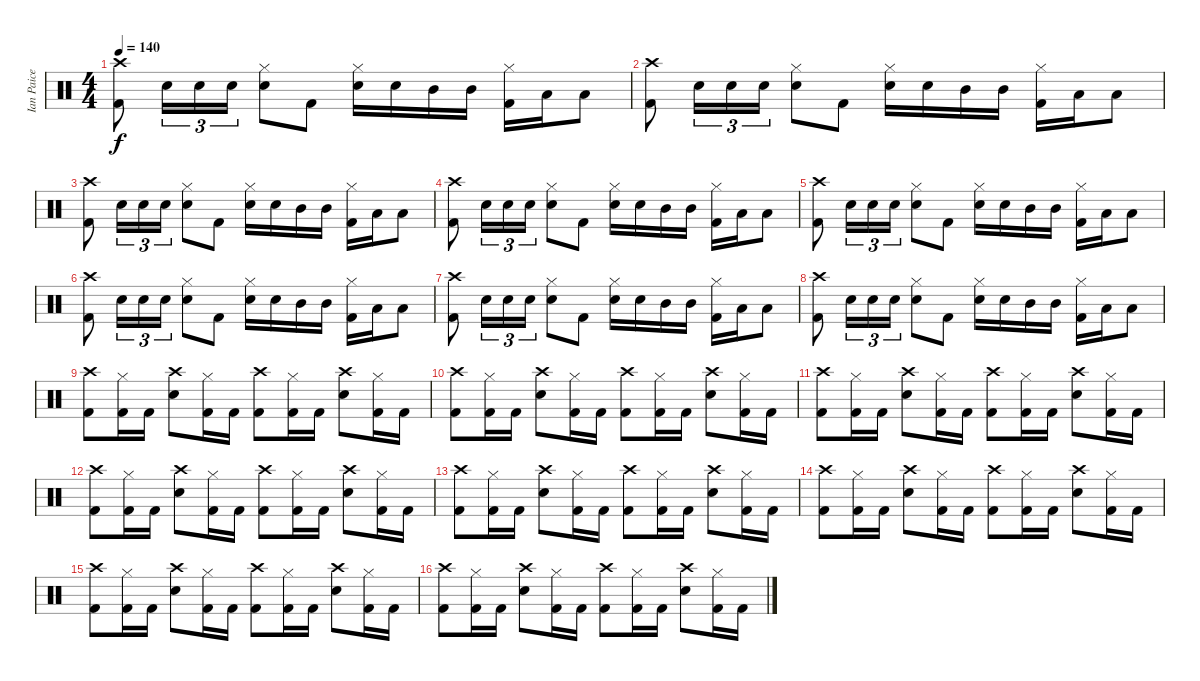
\track ("Ian Paice" "Ian Paice") {instrument percussion}
\staff {score}
\articulation defaults
\ts (4 4)
\tempo 140
\clef neutral
\ks c
("Crash high (hit)" "Kick (hit) 2").8{dy f} "Snare (hit) 2".16{tu (3 2)} "Snare (hit) 2".16{tu (3 2)} "Snare (hit) 2".16{tu (3 2)} ("Hi-Hat (closed)" "Snare (hit) 2").8 "Kick (hit) 2".8 ("Hi-Hat (closed)" "Snare (hit) 2").16 "Snare (hit) 2".16 "Mid Tom (hit)".16 "Mid Tom (hit)".16 ("Hi-Hat (closed)" "Kick (hit) 2").16 "Low Tom (hit)".16 "Low Tom (hit)".8 |
("Crash high (hit)" "Kick (hit) 2").8 "Snare (hit) 2".16{tu (3 2)} "Snare (hit) 2".16{tu (3 2)} "Snare (hit) 2".16{tu (3 2)} ("Hi-Hat (closed)" "Snare (hit) 2").8 "Kick (hit) 2".8 ("Hi-Hat (closed)" "Snare (hit) 2").16 "Snare (hit) 2".16 "Mid Tom (hit)".16 "Mid Tom (hit)".16 ("Hi-Hat (closed)" "Kick (hit) 2").16 "Low Tom (hit)".16 "Low Tom (hit)".8 |
("Crash high (hit)" "Kick (hit) 2").8 "Snare (hit) 2".16{tu (3 2)} "Snare (hit) 2".16{tu (3 2)} "Snare (hit) 2".16{tu (3 2)} ("Hi-Hat (closed)" "Snare (hit) 2").8 "Kick (hit) 2".8 ("Hi-Hat (closed)" "Snare (hit) 2").16 "Snare (hit) 2".16 "Mid Tom (hit)".16 "Mid Tom (hit)".16 ("Hi-Hat (closed)" "Kick (hit) 2").16 "Low Tom (hit)".16 "Low Tom (hit)".8 |
("Crash high (hit)" "Kick (hit) 2").8 "Snare (hit) 2".16{tu (3 2)} "Snare (hit) 2".16{tu (3 2)} "Snare (hit) 2".16{tu (3 2)} ("Hi-Hat (closed)" "Snare (hit) 2").8 "Kick (hit) 2".8 ("Hi-Hat (closed)" "Snare (hit) 2").16 "Snare (hit) 2".16 "Mid Tom (hit)".16 "Mid Tom (hit)".16 ("Hi-Hat (closed)" "Kick (hit) 2").16 "Low Tom (hit)".16 "Low Tom (hit)".8 |
("Crash high (hit)" "Kick (hit) 2").8 "Snare (hit) 2".16{tu (3 2)} "Snare (hit) 2".16{tu (3 2)} "Snare (hit) 2".16{tu (3 2)} ("Hi-Hat (closed)" "Snare (hit) 2").8 "Kick (hit) 2".8 ("Hi-Hat (closed)" "Snare (hit) 2").16 "Snare (hit) 2".16 "Mid Tom (hit)".16 "Mid Tom (hit)".16 ("Hi-Hat (closed)" "Kick (hit) 2").16 "Low Tom (hit)".16 "Low Tom (hit)".8 |
("Crash high (hit)" "Kick (hit) 2").8 "Snare (hit) 2".16{tu (3 2)} "Snare (hit) 2".16{tu (3 2)} "Snare (hit) 2".16{tu (3 2)} ("Hi-Hat (closed)" "Snare (hit) 2").8 "Kick (hit) 2".8 ("Hi-Hat (closed)" "Snare (hit) 2").16 "Snare (hit) 2".16 "Mid Tom (hit)".16 "Mid Tom (hit)".16 ("Hi-Hat (closed)" "Kick (hit) 2").16 "Low Tom (hit)".16 "Low Tom (hit)".8 |
("Crash high (hit)" "Kick (hit) 2").8 "Snare (hit) 2".16{tu (3 2)} "Snare (hit) 2".16{tu (3 2)} "Snare (hit) 2".16{tu (3 2)} ("Hi-Hat (closed)" "Snare (hit) 2").8 "Kick (hit) 2".8 ("Hi-Hat (closed)" "Snare (hit) 2").16 "Snare (hit) 2".16 "Mid Tom (hit)".16 "Mid Tom (hit)".16 ("Hi-Hat (closed)" "Kick (hit) 2").16 "Low Tom (hit)".16 "Low Tom (hit)".8 |
("Crash high (hit)" "Kick (hit) 2").8 "Snare (hit) 2".16{tu (3 2)} "Snare (hit) 2".16{tu (3 2)} "Snare (hit) 2".16{tu (3 2)} ("Hi-Hat (closed)" "Snare (hit) 2").8 "Kick (hit) 2".8 ("Hi-Hat (closed)" "Snare (hit) 2").16 "Snare (hit) 2".16 "Mid Tom (hit)".16 "Mid Tom (hit)".16 ("Hi-Hat (closed)" "Kick (hit) 2").16 "Low Tom (hit)".16 "Low Tom (hit)".8 |
("Crash high (hit)" "Kick (hit) 2").8 ("Hi-Hat (closed)" "Kick (hit) 2").16 "Kick (hit) 2".16 ("Crash high (hit)" "Electric Snare (hit)").8 ("Hi-Hat (closed)" "Kick (hit) 2").16 "Kick (hit) 2".16 ("Crash high (hit)" "Kick (hit) 2").8 ("Hi-Hat (closed)" "Kick (hit) 2").16 "Kick (hit) 2".16 ("Crash high (hit)" "Electric Snare (hit)").8 ("Hi-Hat (closed)" "Kick (hit) 2").16 "Kick (hit) 2".16 |
("Crash high (hit)" "Kick (hit) 2").8 ("Hi-Hat (closed)" "Kick (hit) 2").16 "Kick (hit) 2".16 ("Crash high (hit)" "Electric Snare (hit)").8 ("Hi-Hat (closed)" "Kick (hit) 2").16 "Kick (hit) 2".16 ("Crash high (hit)" "Kick (hit) 2").8 ("Hi-Hat (closed)" "Kick (hit) 2").16 "Kick (hit) 2".16 ("Crash high (hit)" "Electric Snare (hit)").8 ("Hi-Hat (closed)" "Kick (hit) 2").16 "Kick (hit) 2".16 |
("Crash high (hit)" "Kick (hit) 2").8 ("Hi-Hat (closed)" "Kick (hit) 2").16 "Kick (hit) 2".16 ("Crash high (hit)" "Electric Snare (hit)").8 ("Hi-Hat (closed)" "Kick (hit) 2").16 "Kick (hit) 2".16 ("Crash high (hit)" "Kick (hit) 2").8 ("Hi-Hat (closed)" "Kick (hit) 2").16 "Kick (hit) 2".16 ("Crash high (hit)" "Electric Snare (hit)").8 ("Hi-Hat (closed)" "Kick (hit) 2").16 "Kick (hit) 2".16 |
("Crash high (hit)" "Kick (hit) 2").8 ("Hi-Hat (closed)" "Kick (hit) 2").16 "Kick (hit) 2".16 ("Crash high (hit)" "Electric Snare (hit)").8 ("Hi-Hat (closed)" "Kick (hit) 2").16 "Kick (hit) 2".16 ("Crash high (hit)" "Kick (hit) 2").8 ("Hi-Hat (closed)" "Kick (hit) 2").16 "Kick (hit) 2".16 ("Crash high (hit)" "Electric Snare (hit)").8 ("Hi-Hat (closed)" "Kick (hit) 2").16 "Kick (hit) 2".16 |
("Crash high (hit)" "Kick (hit) 2").8 ("Hi-Hat (closed)" "Kick (hit) 2").16 "Kick (hit) 2".16 ("Crash high (hit)" "Electric Snare (hit)").8 ("Hi-Hat (closed)" "Kick (hit) 2").16 "Kick (hit) 2".16 ("Crash high (hit)" "Kick (hit) 2").8 ("Hi-Hat (closed)" "Kick (hit) 2").16 "Kick (hit) 2".16 ("Crash high (hit)" "Electric Snare (hit)").8 ("Hi-Hat (closed)" "Kick (hit) 2").16 "Kick (hit) 2".16 |
("Crash high (hit)" "Kick (hit) 2").8 ("Hi-Hat (closed)" "Kick (hit) 2").16 "Kick (hit) 2".16 ("Crash high (hit)" "Electric Snare (hit)").8 ("Hi-Hat (closed)" "Kick (hit) 2").16 "Kick (hit) 2".16 ("Crash high (hit)" "Kick (hit) 2").8 ("Hi-Hat (closed)" "Kick (hit) 2").16 "Kick (hit) 2".16 ("Crash high (hit)" "Electric Snare (hit)").8 ("Hi-Hat (closed)" "Kick (hit) 2").16 "Kick (hit) 2".16 |
("Crash high (hit)" "Kick (hit) 2").8 ("Hi-Hat (closed)" "Kick (hit) 2").16 "Kick (hit) 2".16 ("Crash high (hit)" "Electric Snare (hit)").8 ("Hi-Hat (closed)" "Kick (hit) 2").16 "Kick (hit) 2".16 ("Crash high (hit)" "Kick (hit) 2").8 ("Hi-Hat (closed)" "Kick (hit) 2").16 "Kick (hit) 2".16 ("Crash high (hit)" "Electric Snare (hit)").8 ("Hi-Hat (closed)" "Kick (hit) 2").16 "Kick (hit) 2".16 |
("Crash high (hit)" "Kick (hit) 2").8 ("Hi-Hat (closed)" "Kick (hit) 2").16 "Kick (hit) 2".16 ("Crash high (hit)" "Electric Snare (hit)").8 ("Hi-Hat (closed)" "Kick (hit) 2").16 "Kick (hit) 2".16 ("Crash high (hit)" "Kick (hit) 2").8 ("Hi-Hat (closed)" "Kick (hit) 2").16 "Kick (hit) 2".16 ("Crash high (hit)" "Electric Snare (hit)").8 ("Hi-Hat (closed)" "Kick (hit) 2").16 "Kick (hit) 2".16
